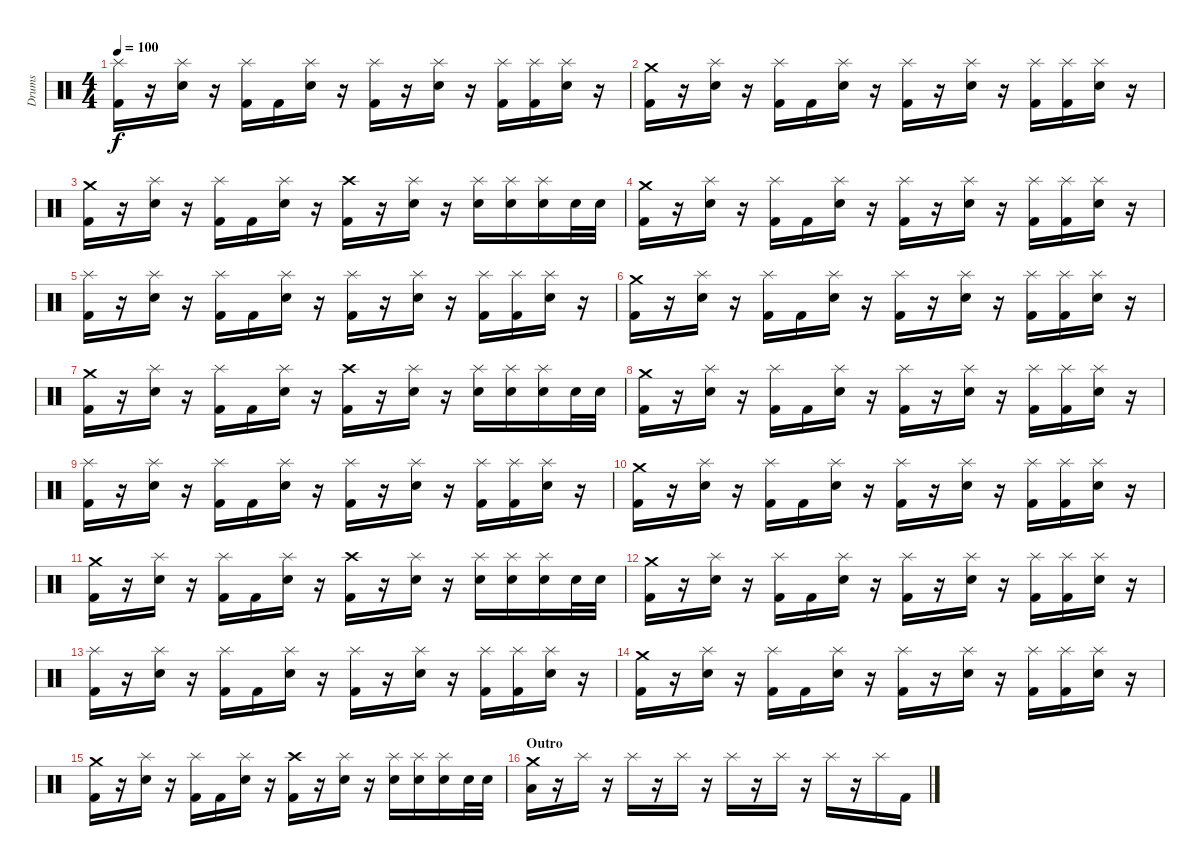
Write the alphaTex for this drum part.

\track ("Drums" "Drums") {instrument percussion}
\staff {score}
\articulation defaults
\ts (4 4)
\tempo 100
\clef neutral
\ks c
("Splash (hit)" "Kick (hit) 2").16{dy f} r.16 ("Splash (hit)" "Snare (hit) 2").16 r.16 ("Splash (hit)" "Kick (hit) 2").16 "Kick (hit) 2".16 ("Splash (hit)" "Snare (hit) 2").16 r.16 ("Splash (hit)" "Kick (hit) 2").16 r.16 ("Splash (hit)" "Snare (hit) 2").16 r.16 ("Splash (hit)" "Kick (hit) 2").16 ("Splash (hit)" "Kick (hit) 2").16 ("Splash (hit)" "Snare (hit) 2").16 r.16 |
("Crash medium (hit)" "Kick (hit) 2").16 r.16 ("Splash (hit)" "Snare (hit) 2").16 r.16 ("Splash (hit)" "Kick (hit) 2").16 "Kick (hit) 2".16 ("Splash (hit)" "Snare (hit) 2").16 r.16 ("Splash (hit)" "Kick (hit) 2").16 r.16 ("Splash (hit)" "Snare (hit) 2").16 r.16 ("Splash (hit)" "Kick (hit) 2").16 ("Splash (hit)" "Kick (hit) 2").16 ("Splash (hit)" "Snare (hit) 2").16 r.16 |
("Crash medium (hit)" "Kick (hit) 2").16 r.16 ("Splash (hit)" "Snare (hit) 2").16 r.16 ("Splash (hit)" "Kick (hit) 2").16 "Kick (hit) 2".16 ("Splash (hit)" "Snare (hit) 2").16 r.16 ("Crash high (hit)" "Kick (hit) 2").16 r.16 ("Splash (hit)" "Snare (hit) 2").16 r.16 ("Splash (hit)" "Snare (hit) 2").16 ("Splash (hit)" "Snare (hit) 2").16 ("Splash (hit)" "Snare (hit) 2").16 "Snare (hit) 2".32 "Snare (hit) 2".32 |
("Crash medium (hit)" "Kick (hit) 2").16 r.16 ("Splash (hit)" "Snare (hit) 2").16 r.16 ("Splash (hit)" "Kick (hit) 2").16 "Kick (hit) 2".16 ("Splash (hit)" "Snare (hit) 2").16 r.16 ("Splash (hit)" "Kick (hit) 2").16 r.16 ("Splash (hit)" "Snare (hit) 2").16 r.16 ("Splash (hit)" "Kick (hit) 2").16 ("Splash (hit)" "Kick (hit) 2").16 ("Splash (hit)" "Snare (hit) 2").16 r.16 |
("Splash (hit)" "Kick (hit) 2").16 r.16 ("Splash (hit)" "Snare (hit) 2").16 r.16 ("Splash (hit)" "Kick (hit) 2").16 "Kick (hit) 2".16 ("Splash (hit)" "Snare (hit) 2").16 r.16 ("Splash (hit)" "Kick (hit) 2").16 r.16 ("Splash (hit)" "Snare (hit) 2").16 r.16 ("Splash (hit)" "Kick (hit) 2").16 ("Splash (hit)" "Kick (hit) 2").16 ("Splash (hit)" "Snare (hit) 2").16 r.16 |
("Crash medium (hit)" "Kick (hit) 2").16 r.16 ("Splash (hit)" "Snare (hit) 2").16 r.16 ("Splash (hit)" "Kick (hit) 2").16 "Kick (hit) 2".16 ("Splash (hit)" "Snare (hit) 2").16 r.16 ("Splash (hit)" "Kick (hit) 2").16 r.16 ("Splash (hit)" "Snare (hit) 2").16 r.16 ("Splash (hit)" "Kick (hit) 2").16 ("Splash (hit)" "Kick (hit) 2").16 ("Splash (hit)" "Snare (hit) 2").16 r.16 |
("Crash medium (hit)" "Kick (hit) 2").16 r.16 ("Splash (hit)" "Snare (hit) 2").16 r.16 ("Splash (hit)" "Kick (hit) 2").16 "Kick (hit) 2".16 ("Splash (hit)" "Snare (hit) 2").16 r.16 ("Crash high (hit)" "Kick (hit) 2").16 r.16 ("Splash (hit)" "Snare (hit) 2").16 r.16 ("Splash (hit)" "Snare (hit) 2").16 ("Splash (hit)" "Snare (hit) 2").16 ("Splash (hit)" "Snare (hit) 2").16 "Snare (hit) 2".32 "Snare (hit) 2".32 |
("Crash medium (hit)" "Kick (hit) 2").16 r.16 ("Splash (hit)" "Snare (hit) 2").16 r.16 ("Splash (hit)" "Kick (hit) 2").16 "Kick (hit) 2".16 ("Splash (hit)" "Snare (hit) 2").16 r.16 ("Splash (hit)" "Kick (hit) 2").16 r.16 ("Splash (hit)" "Snare (hit) 2").16 r.16 ("Splash (hit)" "Kick (hit) 2").16 ("Splash (hit)" "Kick (hit) 2").16 ("Splash (hit)" "Snare (hit) 2").16 r.16 |
("Splash (hit)" "Kick (hit) 2").16 r.16 ("Splash (hit)" "Snare (hit) 2").16 r.16 ("Splash (hit)" "Kick (hit) 2").16 "Kick (hit) 2".16 ("Splash (hit)" "Snare (hit) 2").16 r.16 ("Splash (hit)" "Kick (hit) 2").16 r.16 ("Splash (hit)" "Snare (hit) 2").16 r.16 ("Splash (hit)" "Kick (hit) 2").16 ("Splash (hit)" "Kick (hit) 2").16 ("Splash (hit)" "Snare (hit) 2").16 r.16 |
("Crash medium (hit)" "Kick (hit) 2").16 r.16 ("Splash (hit)" "Snare (hit) 2").16 r.16 ("Splash (hit)" "Kick (hit) 2").16 "Kick (hit) 2".16 ("Splash (hit)" "Snare (hit) 2").16 r.16 ("Splash (hit)" "Kick (hit) 2").16 r.16 ("Splash (hit)" "Snare (hit) 2").16 r.16 ("Splash (hit)" "Kick (hit) 2").16 ("Splash (hit)" "Kick (hit) 2").16 ("Splash (hit)" "Snare (hit) 2").16 r.16 |
("Crash medium (hit)" "Kick (hit) 2").16 r.16 ("Splash (hit)" "Snare (hit) 2").16 r.16 ("Splash (hit)" "Kick (hit) 2").16 "Kick (hit) 2".16 ("Splash (hit)" "Snare (hit) 2").16 r.16 ("Crash high (hit)" "Kick (hit) 2").16 r.16 ("Splash (hit)" "Snare (hit) 2").16 r.16 ("Splash (hit)" "Snare (hit) 2").16 ("Splash (hit)" "Snare (hit) 2").16 ("Splash (hit)" "Snare (hit) 2").16 "Snare (hit) 2".32 "Snare (hit) 2".32 |
("Crash medium (hit)" "Kick (hit) 2").16 r.16 ("Splash (hit)" "Snare (hit) 2").16 r.16 ("Splash (hit)" "Kick (hit) 2").16 "Kick (hit) 2".16 ("Splash (hit)" "Snare (hit) 2").16 r.16 ("Splash (hit)" "Kick (hit) 2").16 r.16 ("Splash (hit)" "Snare (hit) 2").16 r.16 ("Splash (hit)" "Kick (hit) 2").16 ("Splash (hit)" "Kick (hit) 2").16 ("Splash (hit)" "Snare (hit) 2").16 r.16 |
("Splash (hit)" "Kick (hit) 2").16 r.16 ("Splash (hit)" "Snare (hit) 2").16 r.16 ("Splash (hit)" "Kick (hit) 2").16 "Kick (hit) 2".16 ("Splash (hit)" "Snare (hit) 2").16 r.16 ("Splash (hit)" "Kick (hit) 2").16 r.16 ("Splash (hit)" "Snare (hit) 2").16 r.16 ("Splash (hit)" "Kick (hit) 2").16 ("Splash (hit)" "Kick (hit) 2").16 ("Splash (hit)" "Snare (hit) 2").16 r.16 |
("Crash medium (hit)" "Kick (hit) 2").16 r.16 ("Splash (hit)" "Snare (hit) 2").16 r.16 ("Splash (hit)" "Kick (hit) 2").16 "Kick (hit) 2".16 ("Splash (hit)" "Snare (hit) 2").16 r.16 ("Splash (hit)" "Kick (hit) 2").16 r.16 ("Splash (hit)" "Snare (hit) 2").16 r.16 ("Splash (hit)" "Kick (hit) 2").16 ("Splash (hit)" "Kick (hit) 2").16 ("Splash (hit)" "Snare (hit) 2").16 r.16 |
("Crash medium (hit)" "Kick (hit) 2").16 r.16 ("Splash (hit)" "Snare (hit) 2").16 r.16 ("Splash (hit)" "Kick (hit) 2").16 "Kick (hit) 2".16 ("Splash (hit)" "Snare (hit) 2").16 r.16 ("Crash high (hit)" "Kick (hit) 2").16 r.16 ("Splash (hit)" "Snare (hit) 2").16 r.16 ("Splash (hit)" "Snare (hit) 2").16 ("Splash (hit)" "Snare (hit) 2").16 ("Splash (hit)" "Snare (hit) 2").16 "Snare (hit) 2".32 "Snare (hit) 2".32 |
\section ("" "Outro")
("Crash medium (hit)" "Low Tom (hit)").16 r.16 "Splash (hit)".16 r.16 "Splash (hit)".16 r.16 "Splash (hit)".16 r.16 "Splash (hit)".16 r.16 "Splash (hit)".16 r.16 "Splash (hit)".16 r.16 "Splash (hit)".16 "Kick (hit) 2".16
